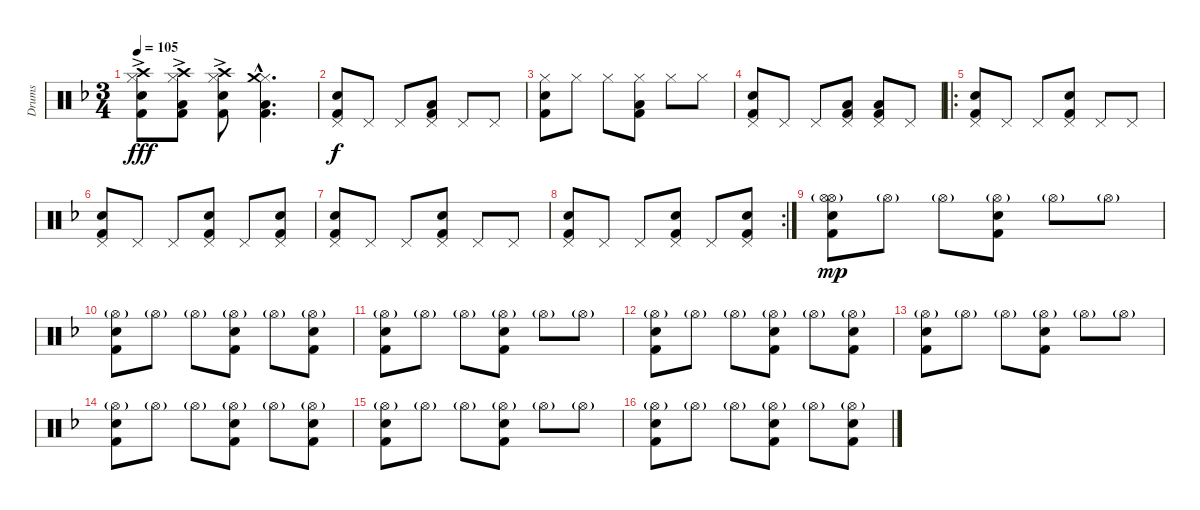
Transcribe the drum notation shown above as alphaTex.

\track ("Drums" "Drums") {instrument percussion}
\staff {score}
\articulation defaults
\ts (3 4)
\tempo 105
\clef neutral
\ks f
("Hi-Hat (closed)" "Crash high (hit)" "Snare (hit) 2" "Kick (hit) 2"{ac}).8{dy fff} ("Hi-Hat (closed)" "Crash high (hit)" "Low Floor Tom (hit)" "Kick (hit) 2"{ac}).8 ("Hi-Hat (closed)" "Crash high (hit)" "Snare (hit) 2" "Kick (hit) 2"{ac}).8 ("Hi-Hat (closed)"{hac} "Crash medium (hit)"{hac} "Low Floor Tom (hit)"{hac} "Kick (hit) 2"{hac}).4{d} |
("Pedal Hi-Hat (hit)" "Snare (hit) 2" "Kick (hit) 2").8{dy f} "Pedal Hi-Hat (hit)".8 "Pedal Hi-Hat (hit)".8 ("Pedal Hi-Hat (hit)" "Low Floor Tom (hit)" "Kick (hit) 2").8 "Pedal Hi-Hat (hit)".8 "Pedal Hi-Hat (hit)".8 |
("Hi-Hat (closed)" "Snare (hit) 2" "Kick (hit) 2").8 "Hi-Hat (closed)".8 "Hi-Hat (closed)".8 ("Hi-Hat (closed)" "Low Floor Tom (hit)" "Kick (hit) 2").8 "Hi-Hat (closed)".8 "Hi-Hat (closed)".8 |
("Pedal Hi-Hat (hit)" "Snare (hit) 2" "Kick (hit) 2").8 "Pedal Hi-Hat (hit)".8 "Pedal Hi-Hat (hit)".8 ("Pedal Hi-Hat (hit)" "Low Floor Tom (hit)" "Kick (hit) 2").8 ("Pedal Hi-Hat (hit)" "Low Floor Tom (hit)" "Kick (hit) 2").8 "Pedal Hi-Hat (hit)".8 |
\ro
("Pedal Hi-Hat (hit)" "Snare (hit) 2" "Kick (hit) 2").8 "Pedal Hi-Hat (hit)".8 "Pedal Hi-Hat (hit)".8 ("Pedal Hi-Hat (hit)" "Snare (hit) 2" "Kick (hit) 2").8 "Pedal Hi-Hat (hit)".8 "Pedal Hi-Hat (hit)".8 |
("Pedal Hi-Hat (hit)" "Snare (hit) 2" "Kick (hit) 2").8 "Pedal Hi-Hat (hit)".8 "Pedal Hi-Hat (hit)".8 ("Pedal Hi-Hat (hit)" "Snare (hit) 2" "Kick (hit) 2").8 "Pedal Hi-Hat (hit)".8 ("Pedal Hi-Hat (hit)" "Snare (hit) 2" "Kick (hit) 2").8 |
("Pedal Hi-Hat (hit)" "Snare (hit) 2" "Kick (hit) 2").8 "Pedal Hi-Hat (hit)".8 "Pedal Hi-Hat (hit)".8 ("Pedal Hi-Hat (hit)" "Snare (hit) 2" "Kick (hit) 2").8 "Pedal Hi-Hat (hit)".8 "Pedal Hi-Hat (hit)".8 |
\rc 2
("Pedal Hi-Hat (hit)" "Snare (hit) 2" "Kick (hit) 2").8 "Pedal Hi-Hat (hit)".8 "Pedal Hi-Hat (hit)".8 ("Pedal Hi-Hat (hit)" "Snare (hit) 2" "Kick (hit) 2").8 "Pedal Hi-Hat (hit)".8 ("Pedal Hi-Hat (hit)" "Snare (hit) 2" "Kick (hit) 2").8 |
("Hi-Hat (open)"{g} "Hi-Hat (open)" "Snare (hit) 2" "Kick (hit) 2").8{dy mp} "Hi-Hat (open)"{g}.8 "Hi-Hat (open)"{g}.8 ("Hi-Hat (open)"{g} "Snare (hit) 2" "Kick (hit) 2").8 "Hi-Hat (open)"{g}.8 "Hi-Hat (open)"{g}.8 |
("Hi-Hat (open)"{g} "Snare (hit) 2" "Kick (hit) 2").8 "Hi-Hat (open)"{g}.8 "Hi-Hat (open)"{g}.8 ("Hi-Hat (open)"{g} "Snare (hit) 2" "Kick (hit) 2").8 "Hi-Hat (open)"{g}.8 ("Hi-Hat (open)"{g} "Snare (hit) 2" "Kick (hit) 2").8 |
("Hi-Hat (open)"{g} "Snare (hit) 2" "Kick (hit) 2").8 "Hi-Hat (open)"{g}.8 "Hi-Hat (open)"{g}.8 ("Hi-Hat (open)"{g} "Snare (hit) 2" "Kick (hit) 2").8 "Hi-Hat (open)"{g}.8 "Hi-Hat (open)"{g}.8 |
("Hi-Hat (open)"{g} "Snare (hit) 2" "Kick (hit) 2").8 "Hi-Hat (open)"{g}.8 "Hi-Hat (open)"{g}.8 ("Hi-Hat (open)"{g} "Snare (hit) 2" "Kick (hit) 2").8 "Hi-Hat (open)"{g}.8 ("Hi-Hat (open)"{g} "Snare (hit) 2" "Kick (hit) 2").8 |
("Hi-Hat (open)"{g} "Snare (hit) 2" "Kick (hit) 2").8 "Hi-Hat (open)"{g}.8 "Hi-Hat (open)"{g}.8 ("Hi-Hat (open)"{g} "Snare (hit) 2" "Kick (hit) 2").8 "Hi-Hat (open)"{g}.8 "Hi-Hat (open)"{g}.8 |
("Hi-Hat (open)"{g} "Snare (hit) 2" "Kick (hit) 2").8 "Hi-Hat (open)"{g}.8 "Hi-Hat (open)"{g}.8 ("Hi-Hat (open)"{g} "Snare (hit) 2" "Kick (hit) 2").8 "Hi-Hat (open)"{g}.8 ("Hi-Hat (open)"{g} "Snare (hit) 2" "Kick (hit) 2").8 |
("Hi-Hat (open)"{g} "Snare (hit) 2" "Kick (hit) 2").8 "Hi-Hat (open)"{g}.8 "Hi-Hat (open)"{g}.8 ("Hi-Hat (open)"{g} "Snare (hit) 2" "Kick (hit) 2").8 "Hi-Hat (open)"{g}.8 "Hi-Hat (open)"{g}.8 |
("Hi-Hat (open)"{g} "Snare (hit) 2" "Kick (hit) 2").8 "Hi-Hat (open)"{g}.8 "Hi-Hat (open)"{g}.8 ("Hi-Hat (open)"{g} "Snare (hit) 2" "Kick (hit) 2").8 "Hi-Hat (open)"{g}.8 ("Hi-Hat (open)"{g} "Snare (hit) 2" "Kick (hit) 2").8
